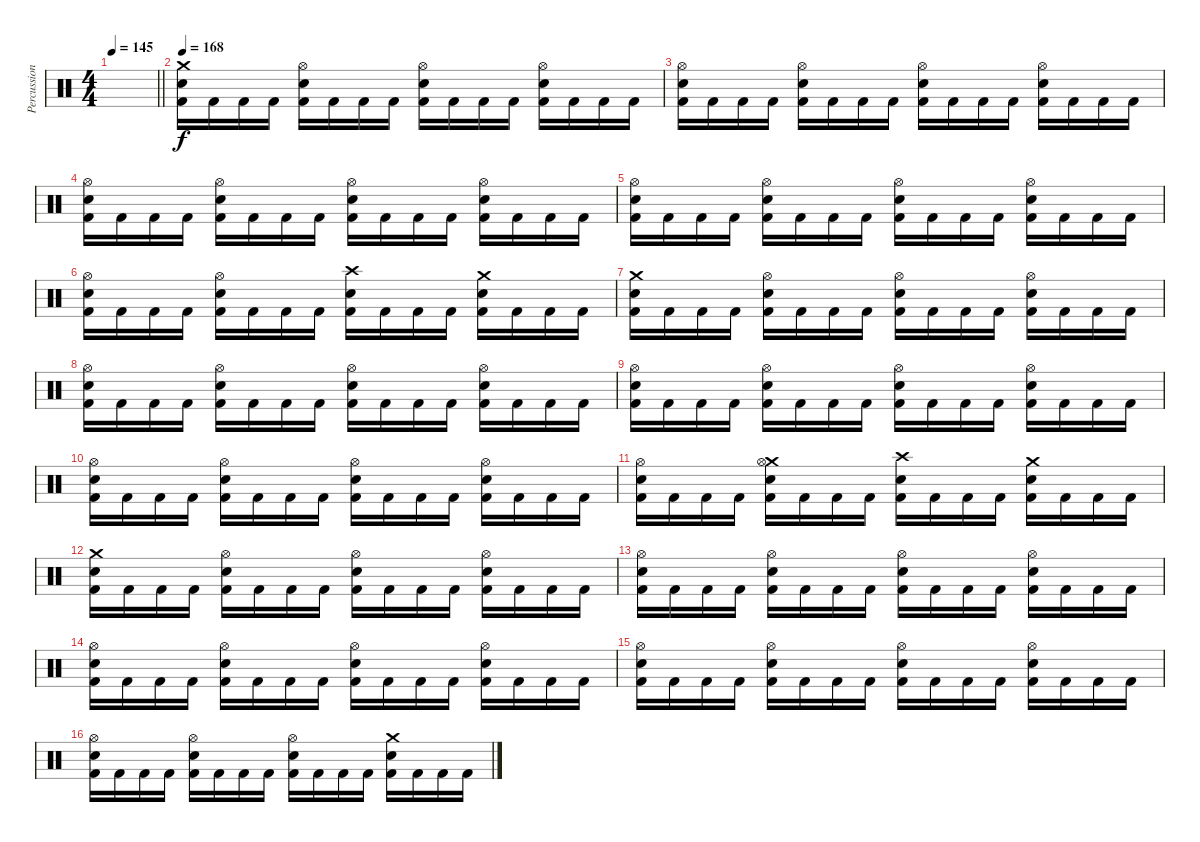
\track ("Percussions" "Percussion") {instrument percussion}
\staff {score}
\articulation defaults
\ts (4 4)
\tempo 145
\clef neutral
\barLineRight lightlight
\ks c
|
\tempo 168
("Crash medium (hit)" "Snare (hit) 2" "Kick (hit) 2").16 "Kick (hit) 2".16 "Kick (hit) 2".16 "Kick (hit) 2".16 ("Hi-Hat (open)" "Snare (hit) 2" "Kick (hit) 2").16 "Kick (hit) 2".16 "Kick (hit) 2".16 "Kick (hit) 2".16 ("Hi-Hat (open)" "Snare (hit) 2" "Kick (hit) 2").16 "Kick (hit) 2".16 "Kick (hit) 2".16 "Kick (hit) 2".16 ("Hi-Hat (open)" "Snare (hit) 2" "Kick (hit) 2").16 "Kick (hit) 2".16 "Kick (hit) 2".16 "Kick (hit) 2".16 |
("Hi-Hat (open)" "Snare (hit) 2" "Kick (hit) 2").16 "Kick (hit) 2".16 "Kick (hit) 2".16 "Kick (hit) 2".16 ("Hi-Hat (open)" "Snare (hit) 2" "Kick (hit) 2").16 "Kick (hit) 2".16 "Kick (hit) 2".16 "Kick (hit) 2".16 ("Hi-Hat (open)" "Snare (hit) 2" "Kick (hit) 2").16 "Kick (hit) 2".16 "Kick (hit) 2".16 "Kick (hit) 2".16 ("Hi-Hat (open)" "Snare (hit) 2" "Kick (hit) 2").16 "Kick (hit) 2".16 "Kick (hit) 2".16 "Kick (hit) 2".16 |
("Hi-Hat (open)" "Snare (hit) 2" "Kick (hit) 2").16 "Kick (hit) 2".16 "Kick (hit) 2".16 "Kick (hit) 2".16 ("Hi-Hat (open)" "Snare (hit) 2" "Kick (hit) 2").16 "Kick (hit) 2".16 "Kick (hit) 2".16 "Kick (hit) 2".16 ("Hi-Hat (open)" "Snare (hit) 2" "Kick (hit) 2").16 "Kick (hit) 2".16 "Kick (hit) 2".16 "Kick (hit) 2".16 ("Hi-Hat (open)" "Snare (hit) 2" "Kick (hit) 2").16 "Kick (hit) 2".16 "Kick (hit) 2".16 "Kick (hit) 2".16 |
("Hi-Hat (open)" "Snare (hit) 2" "Kick (hit) 2").16 "Kick (hit) 2".16 "Kick (hit) 2".16 "Kick (hit) 2".16 ("Hi-Hat (open)" "Snare (hit) 2" "Kick (hit) 2").16 "Kick (hit) 2".16 "Kick (hit) 2".16 "Kick (hit) 2".16 ("Hi-Hat (open)" "Snare (hit) 2" "Kick (hit) 2").16 "Kick (hit) 2".16 "Kick (hit) 2".16 "Kick (hit) 2".16 ("Hi-Hat (open)" "Snare (hit) 2" "Kick (hit) 2").16 "Kick (hit) 2".16 "Kick (hit) 2".16 "Kick (hit) 2".16 |
("Hi-Hat (open)" "Snare (hit) 2" "Kick (hit) 2").16 "Kick (hit) 2".16 "Kick (hit) 2".16 "Kick (hit) 2".16 ("Hi-Hat (open)" "Snare (hit) 2" "Kick (hit) 2").16 "Kick (hit) 2".16 "Kick (hit) 2".16 "Kick (hit) 2".16 ("Crash high (hit)" "Snare (hit) 2" "Kick (hit) 2").16 "Kick (hit) 2".16 "Kick (hit) 2".16 "Kick (hit) 2".16 ("Crash medium (hit)" "Snare (hit) 2" "Kick (hit) 2").16 "Kick (hit) 2".16 "Kick (hit) 2".16 "Kick (hit) 2".16 |
("Crash medium (hit)" "Snare (hit) 2" "Kick (hit) 2").16 "Kick (hit) 2".16 "Kick (hit) 2".16 "Kick (hit) 2".16 ("Hi-Hat (open)" "Snare (hit) 2" "Kick (hit) 2").16 "Kick (hit) 2".16 "Kick (hit) 2".16 "Kick (hit) 2".16 ("Hi-Hat (open)" "Snare (hit) 2" "Kick (hit) 2").16 "Kick (hit) 2".16 "Kick (hit) 2".16 "Kick (hit) 2".16 ("Hi-Hat (open)" "Snare (hit) 2" "Kick (hit) 2").16 "Kick (hit) 2".16 "Kick (hit) 2".16 "Kick (hit) 2".16 |
("Hi-Hat (open)" "Snare (hit) 2" "Kick (hit) 2").16 "Kick (hit) 2".16 "Kick (hit) 2".16 "Kick (hit) 2".16 ("Hi-Hat (open)" "Snare (hit) 2" "Kick (hit) 2").16 "Kick (hit) 2".16 "Kick (hit) 2".16 "Kick (hit) 2".16 ("Hi-Hat (open)" "Snare (hit) 2" "Kick (hit) 2").16 "Kick (hit) 2".16 "Kick (hit) 2".16 "Kick (hit) 2".16 ("Hi-Hat (open)" "Snare (hit) 2" "Kick (hit) 2").16 "Kick (hit) 2".16 "Kick (hit) 2".16 "Kick (hit) 2".16 |
("Hi-Hat (open)" "Snare (hit) 2" "Kick (hit) 2").16 "Kick (hit) 2".16 "Kick (hit) 2".16 "Kick (hit) 2".16 ("Hi-Hat (open)" "Snare (hit) 2" "Kick (hit) 2").16 "Kick (hit) 2".16 "Kick (hit) 2".16 "Kick (hit) 2".16 ("Hi-Hat (open)" "Snare (hit) 2" "Kick (hit) 2").16 "Kick (hit) 2".16 "Kick (hit) 2".16 "Kick (hit) 2".16 ("Hi-Hat (open)" "Snare (hit) 2" "Kick (hit) 2").16 "Kick (hit) 2".16 "Kick (hit) 2".16 "Kick (hit) 2".16 |
("Hi-Hat (open)" "Snare (hit) 2" "Kick (hit) 2").16 "Kick (hit) 2".16 "Kick (hit) 2".16 "Kick (hit) 2".16 ("Hi-Hat (open)" "Snare (hit) 2" "Kick (hit) 2").16 "Kick (hit) 2".16 "Kick (hit) 2".16 "Kick (hit) 2".16 ("Hi-Hat (open)" "Snare (hit) 2" "Kick (hit) 2").16 "Kick (hit) 2".16 "Kick (hit) 2".16 "Kick (hit) 2".16 ("Hi-Hat (open)" "Snare (hit) 2" "Kick (hit) 2").16 "Kick (hit) 2".16 "Kick (hit) 2".16 "Kick (hit) 2".16 |
("Hi-Hat (open)" "Snare (hit) 2" "Kick (hit) 2").16 "Kick (hit) 2".16 "Kick (hit) 2".16 "Kick (hit) 2".16 ("Crash medium (hit)" "Hi-Hat (open)" "Snare (hit) 2" "Kick (hit) 2").16 "Kick (hit) 2".16 "Kick (hit) 2".16 "Kick (hit) 2".16 ("Crash high (hit)" "Snare (hit) 2" "Kick (hit) 2").16 "Kick (hit) 2".16 "Kick (hit) 2".16 "Kick (hit) 2".16 ("Crash medium (hit)" "Snare (hit) 2" "Kick (hit) 2").16 "Kick (hit) 2".16 "Kick (hit) 2".16 "Kick (hit) 2".16 |
("Crash medium (hit)" "Snare (hit) 2" "Kick (hit) 2").16 "Kick (hit) 2".16 "Kick (hit) 2".16 "Kick (hit) 2".16 ("Hi-Hat (open)" "Snare (hit) 2" "Kick (hit) 2").16 "Kick (hit) 2".16 "Kick (hit) 2".16 "Kick (hit) 2".16 ("Hi-Hat (open)" "Snare (hit) 2" "Kick (hit) 2").16 "Kick (hit) 2".16 "Kick (hit) 2".16 "Kick (hit) 2".16 ("Hi-Hat (open)" "Snare (hit) 2" "Kick (hit) 2").16 "Kick (hit) 2".16 "Kick (hit) 2".16 "Kick (hit) 2".16 |
("Hi-Hat (open)" "Snare (hit) 2" "Kick (hit) 2").16 "Kick (hit) 2".16 "Kick (hit) 2".16 "Kick (hit) 2".16 ("Hi-Hat (open)" "Snare (hit) 2" "Kick (hit) 2").16 "Kick (hit) 2".16 "Kick (hit) 2".16 "Kick (hit) 2".16 ("Hi-Hat (open)" "Snare (hit) 2" "Kick (hit) 2").16 "Kick (hit) 2".16 "Kick (hit) 2".16 "Kick (hit) 2".16 ("Hi-Hat (open)" "Snare (hit) 2" "Kick (hit) 2").16 "Kick (hit) 2".16 "Kick (hit) 2".16 "Kick (hit) 2".16 |
("Hi-Hat (open)" "Snare (hit) 2" "Kick (hit) 2").16 "Kick (hit) 2".16 "Kick (hit) 2".16 "Kick (hit) 2".16 ("Hi-Hat (open)" "Snare (hit) 2" "Kick (hit) 2").16 "Kick (hit) 2".16 "Kick (hit) 2".16 "Kick (hit) 2".16 ("Hi-Hat (open)" "Snare (hit) 2" "Kick (hit) 2").16 "Kick (hit) 2".16 "Kick (hit) 2".16 "Kick (hit) 2".16 ("Hi-Hat (open)" "Snare (hit) 2" "Kick (hit) 2").16 "Kick (hit) 2".16 "Kick (hit) 2".16 "Kick (hit) 2".16 |
("Hi-Hat (open)" "Snare (hit) 2" "Kick (hit) 2").16 "Kick (hit) 2".16 "Kick (hit) 2".16 "Kick (hit) 2".16 ("Hi-Hat (open)" "Snare (hit) 2" "Kick (hit) 2").16 "Kick (hit) 2".16 "Kick (hit) 2".16 "Kick (hit) 2".16 ("Hi-Hat (open)" "Snare (hit) 2" "Kick (hit) 2").16 "Kick (hit) 2".16 "Kick (hit) 2".16 "Kick (hit) 2".16 ("Hi-Hat (open)" "Snare (hit) 2" "Kick (hit) 2").16 "Kick (hit) 2".16 "Kick (hit) 2".16 "Kick (hit) 2".16 |
("Hi-Hat (open)" "Snare (hit) 2" "Kick (hit) 2").16 "Kick (hit) 2".16 "Kick (hit) 2".16 "Kick (hit) 2".16 ("Hi-Hat (open)" "Snare (hit) 2" "Kick (hit) 2").16 "Kick (hit) 2".16 "Kick (hit) 2".16 "Kick (hit) 2".16 ("Hi-Hat (open)" "Snare (hit) 2" "Kick (hit) 2").16 "Kick (hit) 2".16 "Kick (hit) 2".16 "Kick (hit) 2".16 ("Crash medium (hit)" "Snare (hit) 2" "Kick (hit) 2").16 "Kick (hit) 2".16 "Kick (hit) 2".16 "Kick (hit) 2".16
